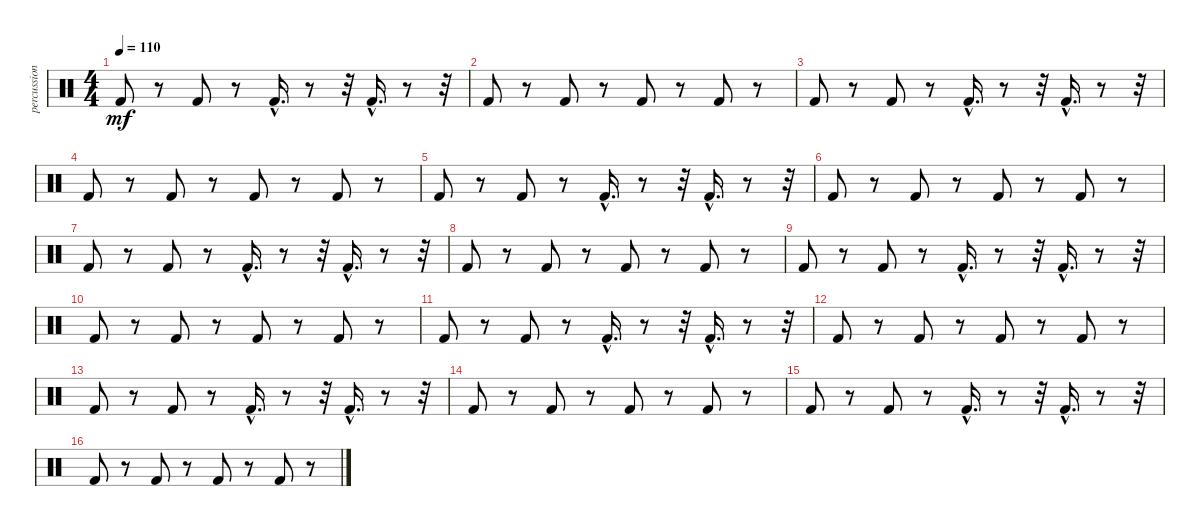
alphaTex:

\track ("percussions 1" "percussion") {instrument percussion}
\staff {score}
\articulation defaults
\ts (4 4)
\tempo 110
\clef neutral
\ks c "Kick (hit) 2".8{dy mf}
r.8 "Kick (hit) 2".8 r.8 "Kick (hit) 2"{hac}.16{d} r.8 r.32 "Kick (hit) 2"{hac}.16{d} r.8 r.32 |
"Kick (hit) 2".8 r.8 "Kick (hit) 2".8 r.8 "Kick (hit) 2".8 r.8 "Kick (hit) 2".8 r.8 |
"Kick (hit) 2".8 r.8 "Kick (hit) 2".8 r.8 "Kick (hit) 2"{hac}.16{d} r.8 r.32 "Kick (hit) 2"{hac}.16{d} r.8 r.32 |
"Kick (hit) 2".8 r.8 "Kick (hit) 2".8 r.8 "Kick (hit) 2".8 r.8 "Kick (hit) 2".8 r.8 |
"Kick (hit) 2".8 r.8 "Kick (hit) 2".8 r.8 "Kick (hit) 2"{hac}.16{d} r.8 r.32 "Kick (hit) 2"{hac}.16{d} r.8 r.32 |
"Kick (hit) 2".8 r.8 "Kick (hit) 2".8 r.8 "Kick (hit) 2".8 r.8 "Kick (hit) 2".8 r.8 |
"Kick (hit) 2".8 r.8 "Kick (hit) 2".8 r.8 "Kick (hit) 2"{hac}.16{d} r.8 r.32 "Kick (hit) 2"{hac}.16{d} r.8 r.32 |
"Kick (hit) 2".8 r.8 "Kick (hit) 2".8 r.8 "Kick (hit) 2".8 r.8 "Kick (hit) 2".8 r.8 |
"Kick (hit) 2".8 r.8 "Kick (hit) 2".8 r.8 "Kick (hit) 2"{hac}.16{d} r.8 r.32 "Kick (hit) 2"{hac}.16{d} r.8 r.32 |
"Kick (hit) 2".8 r.8 "Kick (hit) 2".8 r.8 "Kick (hit) 2".8 r.8 "Kick (hit) 2".8 r.8 |
"Kick (hit) 2".8 r.8 "Kick (hit) 2".8 r.8 "Kick (hit) 2"{hac}.16{d} r.8 r.32 "Kick (hit) 2"{hac}.16{d} r.8 r.32 |
"Kick (hit) 2".8 r.8 "Kick (hit) 2".8 r.8 "Kick (hit) 2".8 r.8 "Kick (hit) 2".8 r.8 |
"Kick (hit) 2".8 r.8 "Kick (hit) 2".8 r.8 "Kick (hit) 2"{hac}.16{d} r.8 r.32 "Kick (hit) 2"{hac}.16{d} r.8 r.32 |
"Kick (hit) 2".8 r.8 "Kick (hit) 2".8 r.8 "Kick (hit) 2".8 r.8 "Kick (hit) 2".8 r.8 |
"Kick (hit) 2".8 r.8 "Kick (hit) 2".8 r.8 "Kick (hit) 2"{hac}.16{d} r.8 r.32 "Kick (hit) 2"{hac}.16{d} r.8 r.32 |
"Kick (hit) 2".8 r.8 "Kick (hit) 2".8 r.8 "Kick (hit) 2".8 r.8 "Kick (hit) 2".8 r.8
